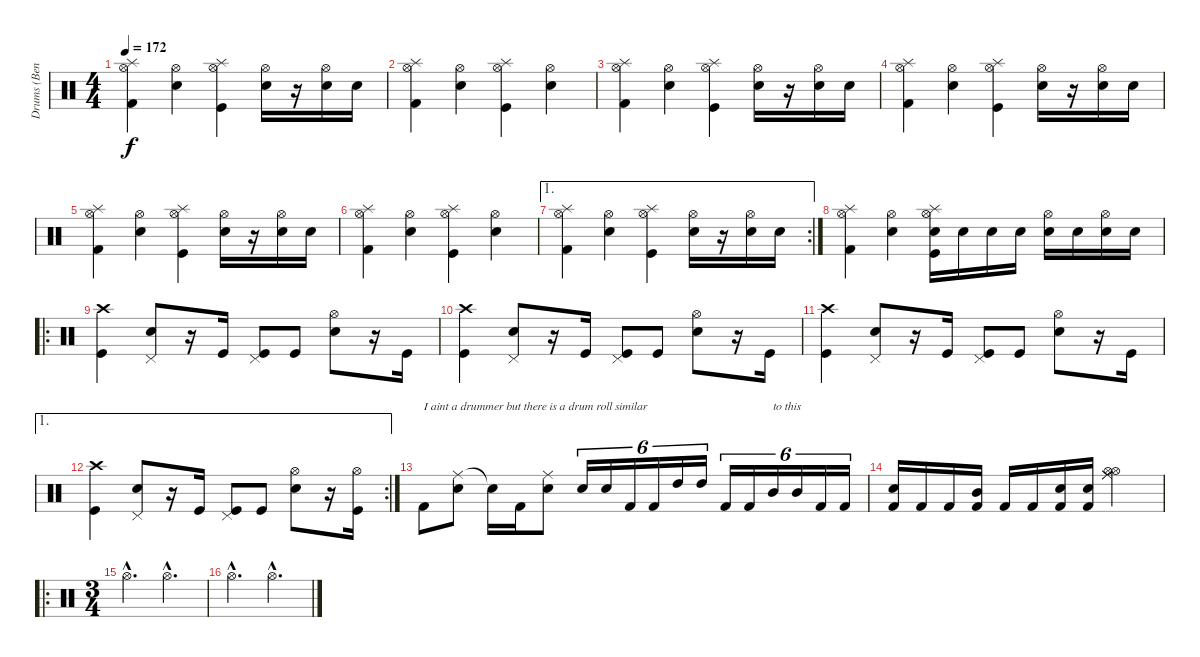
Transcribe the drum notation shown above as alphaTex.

\track ("Drums (Ben)" "Drums (Ben") {instrument percussion}
\staff {score}
\articulation defaults
\ts (4 4)
\tempo 172
\clef neutral
\ks c
("Kick (hit) 2" "Hi-Hat (open)" "Splash (hit)").4{dy f} ("Snare (hit) 2" "Hi-Hat (open)").4 ("Kick (hit)" "Hi-Hat (open)" "Splash (hit)").4 ("Snare (hit) 2" "Hi-Hat (open)").16 r.16 ("Snare (hit) 2" "Hi-Hat (open)").16 "Snare (hit) 2".16 |
("Kick (hit) 2" "Hi-Hat (open)" "Splash (hit)").4 ("Snare (hit) 2" "Hi-Hat (open)").4 ("Kick (hit)" "Hi-Hat (open)" "Splash (hit)").4 ("Snare (hit) 2" "Hi-Hat (open)").4 |
("Kick (hit) 2" "Hi-Hat (open)" "Splash (hit)").4 ("Snare (hit) 2" "Hi-Hat (open)").4 ("Kick (hit)" "Hi-Hat (open)" "Splash (hit)").4 ("Snare (hit) 2" "Hi-Hat (open)").16 r.16 ("Snare (hit) 2" "Hi-Hat (open)").16 "Snare (hit) 2".16 |
("Kick (hit) 2" "Hi-Hat (open)" "Splash (hit)").4 ("Snare (hit) 2" "Hi-Hat (open)").4 ("Kick (hit)" "Hi-Hat (open)" "Splash (hit)").4 ("Snare (hit) 2" "Hi-Hat (open)").16 r.16 ("Snare (hit) 2" "Hi-Hat (open)").16 "Snare (hit) 2".16 |
("Kick (hit) 2" "Hi-Hat (open)" "Splash (hit)").4 ("Snare (hit) 2" "Hi-Hat (open)").4 ("Kick (hit)" "Hi-Hat (open)" "Splash (hit)").4 ("Snare (hit) 2" "Hi-Hat (open)").16 r.16 ("Snare (hit) 2" "Hi-Hat (open)").16 "Snare (hit) 2".16 |
("Kick (hit) 2" "Hi-Hat (open)" "Splash (hit)").4 ("Snare (hit) 2" "Hi-Hat (open)").4 ("Kick (hit)" "Hi-Hat (open)" "Splash (hit)").4 ("Snare (hit) 2" "Hi-Hat (open)").4 |
\ae 1
\rc 2
("Kick (hit) 2" "Hi-Hat (open)" "Splash (hit)").4 ("Snare (hit) 2" "Hi-Hat (open)").4 ("Kick (hit)" "Hi-Hat (open)" "Splash (hit)").4 ("Snare (hit) 2" "Hi-Hat (open)").16 r.16 ("Snare (hit) 2" "Hi-Hat (open)").16 "Snare (hit) 2".16 |
("Kick (hit) 2" "Hi-Hat (open)" "Splash (hit)").4 ("Snare (hit) 2" "Hi-Hat (open)").4 ("Kick (hit)" "Snare (hit) 2" "Hi-Hat (open)" "Splash (hit)").16 "Snare (hit) 2".16 "Snare (hit) 2".16 "Snare (hit) 2".16 ("Snare (hit) 2" "Hi-Hat (open)").16 "Snare (hit) 2".16 ("Snare (hit) 2" "Hi-Hat (open)").16 "Snare (hit) 2".16 |
\ro
("Crash high (hit)" "Kick (hit)").4 ("Pedal Hi-Hat (hit)" "Snare (hit) 2").8 r.16 "Kick (hit)".16 ("Pedal Hi-Hat (hit)" "Kick (hit)").8 "Kick (hit)".8 ("Hi-Hat (open)" "Snare (hit) 2").8 r.16 "Kick (hit)".16 |
("Crash high (hit)" "Kick (hit)").4 ("Pedal Hi-Hat (hit)" "Snare (hit) 2").8 r.16 "Kick (hit)".16 ("Pedal Hi-Hat (hit)" "Kick (hit)").8 "Kick (hit)".8 ("Hi-Hat (open)" "Snare (hit) 2").8 r.16 "Kick (hit)".16 |
("Crash high (hit)" "Kick (hit)").4 ("Pedal Hi-Hat (hit)" "Snare (hit) 2").8 r.16 "Kick (hit)".16 ("Pedal Hi-Hat (hit)" "Kick (hit)").8 "Kick (hit)".8 ("Hi-Hat (open)" "Snare (hit) 2").8 r.16 "Kick (hit)".16 |
\ae 1
\rc 2
("Crash high (hit)" "Kick (hit)").4 ("Pedal Hi-Hat (hit)" "Snare (hit) 2").8 r.16 "Kick (hit)".16 ("Pedal Hi-Hat (hit)" "Kick (hit)").8 "Kick (hit)".8 ("Hi-Hat (open)" "Snare (hit) 2").8 r.16 ("Hi-Hat (open)" "Kick (hit)").16 |
"Kick (hit) 2".8{txt "I aint a drummer but there is a drum roll similar "} ("Ride (middle)" "Snare (hit) 2").8 "Snare (hit)"{t}.16 "Kick (hit) 2".16 ("Ride (middle)" "Snare (hit) 2").8 "Snare (hit) 2".16{tu (6 4)} "Snare (hit) 2".16{tu (6 4)} "Kick (hit) 2".16{tu (6 4)} "Kick (hit) 2".16{tu (6 4)} "High Tom (hit)".16{tu (6 4)} "High Tom (hit)".16{tu (6 4)} "Kick (hit) 2".16{tu (6 4)} "Kick (hit) 2".16{tu (6 4)} "Mid Tom (hit)".16{tu (6 4) txt "to this "} "Mid Tom (hit)".16{tu (6 4)} "Kick (hit) 2".16{tu (6 4)} "Kick (hit) 2".16{tu (6 4)} |
("Snare (hit) 2" "Kick (hit) 2").16 "Kick (hit) 2".16 "Kick (hit) 2".16 ("Mid Tom (hit)" "Kick (hit) 2").16 "Kick (hit) 2".16 "Kick (hit) 2".16 ("Snare (hit) 2" "Kick (hit) 2").16 ("Snare (hit) 2" "Kick (hit) 2").16 ("Hi-Hat (open)" "Hi-Hat (open)" "Ride (middle)" "Ride (middle)").2 |
\ro
\ts (3 4)
"Hi-Hat (open)"{hac}.4{d} "Hi-Hat (open)"{hac}.4{d} |
"Hi-Hat (open)"{hac}.4{d} "Hi-Hat (open)"{hac}.4{d}
